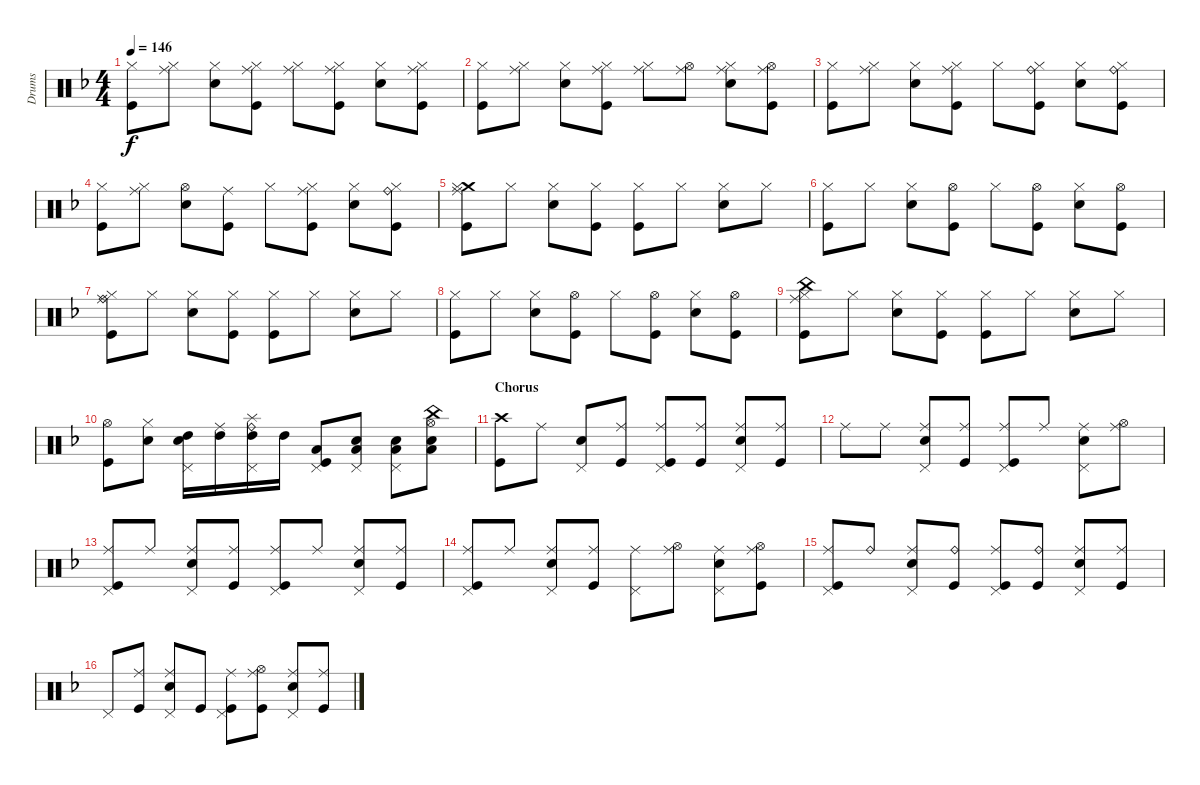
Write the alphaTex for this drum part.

\track ("Drums" "Drums") {instrument percussion}
\staff {score}
\articulation defaults
\ts (4 4)
\tempo 146
\clef neutral
\ks f
("Kick (hit)" "Hi-Hat (closed)").8{dy f} ("Hi-Hat (closed)" "Ride (middle)").8 ("Snare (hit) 2" "Hi-Hat (closed)").8 ("Hi-Hat (closed)" "Ride (middle)" "Kick (hit)").8 ("Hi-Hat (closed)" "Ride (middle)").8 ("Kick (hit)" "Hi-Hat (closed)" "Ride (middle)").8 ("Snare (hit) 2" "Hi-Hat (closed)").8 ("Kick (hit)" "Hi-Hat (closed)" "Ride (middle)").8 |
("Kick (hit)" "Hi-Hat (closed)").8 ("Hi-Hat (closed)" "Ride (middle)").8 ("Snare (hit) 2" "Hi-Hat (closed)").8 ("Kick (hit)" "Hi-Hat (closed)" "Ride (middle)").8 ("Hi-Hat (closed)" "Ride (middle)").8 ("Hi-Hat (open)" "Ride (middle)").8 ("Snare (hit) 2" "Hi-Hat (closed)" "Ride (middle)").8 ("Ride (middle)" "Kick (hit)" "Hi-Hat (open)").8 |
("Kick (hit)" "Hi-Hat (closed)").8 ("Hi-Hat (closed)" "Ride (middle)").8 ("Snare (hit) 2" "Hi-Hat (closed)").8 ("Kick (hit)" "Hi-Hat (closed)" "Ride (middle)").8 "Hi-Hat (closed)".8 ("Ride (bell)" "Kick (hit)" "Hi-Hat (closed)").8 ("Snare (hit) 2" "Hi-Hat (closed)").8 ("Hi-Hat (closed)" "Ride (bell)" "Kick (hit)").8 |
("Kick (hit)" "Hi-Hat (closed)").8 ("Hi-Hat (closed)" "Ride (middle)").8 ("Snare (hit) 2" "Hi-Hat (open)").8 ("Kick (hit)" "Ride (middle)").8 "Hi-Hat (closed)".8 ("Kick (hit)" "Hi-Hat (closed)" "Ride (middle)").8 ("Snare (hit) 2" "Hi-Hat (closed)").8 ("Ride (bell)" "Kick (hit)" "Hi-Hat (closed)").8 |
("Crash medium (hit)" "Kick (hit)" "Ride (middle)" "Hi-Hat (closed)").8 "Hi-Hat (closed)".8 ("Snare (hit) 2" "Hi-Hat (closed)").8 ("Kick (hit)" "Hi-Hat (closed)").8 ("Kick (hit)" "Hi-Hat (closed)").8 "Hi-Hat (closed)".8 ("Snare (hit) 2" "Hi-Hat (closed)").8 "Hi-Hat (closed)".8 |
("Kick (hit)" "Hi-Hat (closed)").8 "Hi-Hat (closed)".8 ("Snare (hit) 2" "Hi-Hat (closed)").8 ("Kick (hit)" "Hi-Hat (open)").8 "Hi-Hat (closed)".8 ("Kick (hit)" "Hi-Hat (open)").8 ("Snare (hit) 2" "Hi-Hat (closed)").8 ("Kick (hit)" "Hi-Hat (open)").8 |
("Ride (bell)" "Kick (hit)" "Ride (middle)" "Hi-Hat (closed)").8 "Hi-Hat (closed)".8 ("Snare (hit) 2" "Hi-Hat (closed)").8 ("Kick (hit)" "Hi-Hat (closed)").8 ("Kick (hit)" "Hi-Hat (closed)").8 "Hi-Hat (closed)".8 ("Snare (hit) 2" "Hi-Hat (closed)").8 "Hi-Hat (closed)".8 |
("Kick (hit)" "Hi-Hat (closed)").8 "Hi-Hat (closed)".8 ("Snare (hit) 2" "Hi-Hat (closed)").8 ("Kick (hit)" "Hi-Hat (open)").8 "Hi-Hat (closed)".8 ("Kick (hit)" "Hi-Hat (open)").8 ("Snare (hit) 2" "Hi-Hat (closed)").8 ("Kick (hit)" "Hi-Hat (open)").8 |
("Hi-Hat (closed)" "Ride (middle)" "Kick (hit)" "China (hit)").8 "Hi-Hat (closed)".8 ("Snare (hit) 2" "Hi-Hat (closed)").8 ("Kick (hit)" "Hi-Hat (closed)").8 ("Kick (hit)" "Hi-Hat (closed)").8 "Hi-Hat (closed)".8 ("Snare (hit) 2" "Hi-Hat (closed)").8 "Hi-Hat (closed)".8 |
("Kick (hit)" "Hi-Hat (open)").8 ("Snare (hit) 2" "Hi-Hat (closed)").8 ("Snare (hit) 2" "Pedal Hi-Hat (hit)" "High Tom (hit)").16 ("High Tom (hit)" "Ride (middle)").16 ("Splash (hit)" "Pedal Hi-Hat (hit)" "Ride (bell)" "High Tom (hit)").16 "High Tom (hit)".16 ("Pedal Hi-Hat (hit)" "Low Tom (hit)" "Kick (hit)").8 ("Low Tom (hit)" "Snare (hit) 2" "Pedal Hi-Hat (hit)").8 ("Snare (hit) 2" "Low Floor Tom (hit)" "Pedal Hi-Hat (hit)").8 ("China (hit)" "Low Floor Tom (hit)" "Snare (hit) 2" "Hi-Hat (open)").8 |
\section ("" "Chorus")
("Kick (hit)" "Crash high (hit)").8 "Ride (middle)".8 ("Snare (hit) 2" "Pedal Hi-Hat (hit)").8 ("Kick (hit)" "Ride (middle)").8 ("Kick (hit)" "Pedal Hi-Hat (hit)" "Ride (middle)").8 ("Kick (hit)" "Ride (middle)").8 ("Ride (middle)" "Snare (hit) 2" "Pedal Hi-Hat (hit)").8 ("Kick (hit)" "Ride (middle)").8 |
"Ride (middle)".8 "Ride (middle)".8 ("Ride (middle)" "Snare (hit) 2" "Pedal Hi-Hat (hit)").8 ("Kick (hit)" "Ride (middle)").8 ("Kick (hit)" "Pedal Hi-Hat (hit)" "Ride (middle)").8 "Ride (middle)".8 ("Snare (hit) 2" "Pedal Hi-Hat (hit)" "Ride (middle)").8 ("Hi-Hat (open)" "Ride (middle)").8 |
("Pedal Hi-Hat (hit)" "Ride (middle)" "Kick (hit)").8 "Ride (middle)".8 ("Ride (middle)" "Snare (hit) 2" "Pedal Hi-Hat (hit)").8 ("Kick (hit)" "Ride (middle)").8 ("Kick (hit)" "Pedal Hi-Hat (hit)" "Ride (middle)").8 "Ride (middle)".8 ("Snare (hit) 2" "Pedal Hi-Hat (hit)" "Ride (middle)").8 ("Kick (hit)" "Ride (middle)").8 |
("Kick (hit)" "Pedal Hi-Hat (hit)" "Ride (middle)").8 "Ride (middle)".8 ("Snare (hit) 2" "Pedal Hi-Hat (hit)" "Ride (middle)").8 ("Kick (hit)" "Ride (middle)").8 ("Pedal Hi-Hat (hit)" "Ride (middle)").8 ("Hi-Hat (open)" "Ride (middle)").8 ("Snare (hit) 2" "Pedal Hi-Hat (hit)" "Ride (middle)").8 ("Ride (middle)" "Kick (hit)" "Hi-Hat (open)").8 |
("Pedal Hi-Hat (hit)" "Ride (middle)" "Kick (hit)").8 "Ride (bell)".8 ("Snare (hit) 2" "Pedal Hi-Hat (hit)" "Ride (middle)").8 ("Kick (hit)" "Ride (bell)").8 ("Kick (hit)" "Pedal Hi-Hat (hit)" "Ride (middle)").8 ("Kick (hit)" "Ride (bell)").8 ("Ride (middle)" "Snare (hit) 2" "Pedal Hi-Hat (hit)").8 ("Kick (hit)" "Ride (middle)").8 |
"Pedal Hi-Hat (hit)".8 ("Kick (hit)" "Ride (middle)").8 ("Ride (middle)" "Snare (hit) 2" "Pedal Hi-Hat (hit)").8 "Kick (hit)".8 ("Kick (hit)" "Pedal Hi-Hat (hit)" "Ride (middle)").8 ("Kick (hit)" "Hi-Hat (open)" "Ride (middle)").8 ("Pedal Hi-Hat (hit)" "Ride (middle)" "Snare (hit) 2").8 ("Kick (hit)" "Ride (middle)").8
